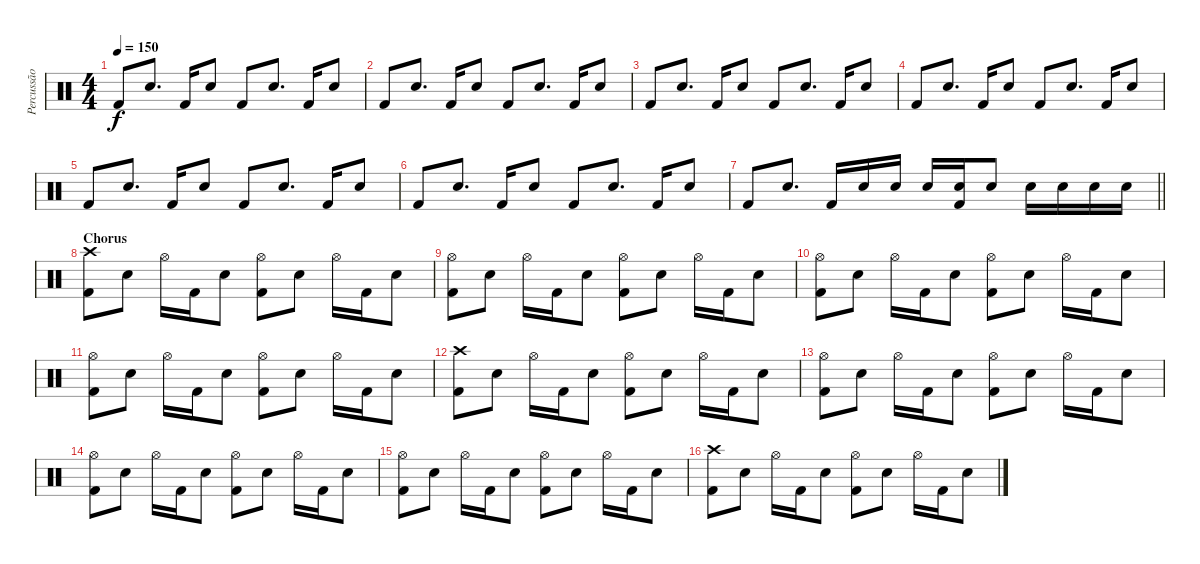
\track ("Percussão" "Percussão") {instrument percussion}
\staff {score}
\articulation defaults
\ts (4 4)
\tempo 150
\clef neutral
\ks c "Kick (hit) 2".8{dy f} "Snare (hit) 2".8{d} "Kick (hit) 2".16 "Snare (hit) 2".8 "Kick (hit) 2".8 "Snare (hit) 2".8{d} "Kick (hit) 2".16 "Snare (hit) 2".8
|
"Kick (hit) 2".8 "Snare (hit) 2".8{d} "Kick (hit) 2".16 "Snare (hit) 2".8 "Kick (hit) 2".8 "Snare (hit) 2".8{d} "Kick (hit) 2".16 "Snare (hit) 2".8 |
"Kick (hit) 2".8 "Snare (hit) 2".8{d} "Kick (hit) 2".16 "Snare (hit) 2".8 "Kick (hit) 2".8 "Snare (hit) 2".8{d} "Kick (hit) 2".16 "Snare (hit) 2".8 |
"Kick (hit) 2".8 "Snare (hit) 2".8{d} "Kick (hit) 2".16 "Snare (hit) 2".8 "Kick (hit) 2".8 "Snare (hit) 2".8{d} "Kick (hit) 2".16 "Snare (hit) 2".8 |
"Kick (hit) 2".8 "Snare (hit) 2".8{d} "Kick (hit) 2".16 "Snare (hit) 2".8 "Kick (hit) 2".8 "Snare (hit) 2".8{d} "Kick (hit) 2".16 "Snare (hit) 2".8 |
"Kick (hit) 2".8 "Snare (hit) 2".8{d} "Kick (hit) 2".16 "Snare (hit) 2".8 "Kick (hit) 2".8 "Snare (hit) 2".8{d} "Kick (hit) 2".16 "Snare (hit) 2".8 |
\barLineRight lightlight "Kick (hit) 2".8 "Snare (hit) 2".8{d} "Kick (hit) 2".16 "Snare (hit) 2".16 "Snare (hit) 2".16 "Snare (hit) 2".16
("Snare (hit) 2" "Kick (hit) 2").16 "Snare (hit) 2".8 "Snare (hit) 2".16 "Snare (hit) 2".16 "Snare (hit) 2".16 "Snare (hit) 2".16 |
\section ("" "Chorus")
("Crash high (hit)" "Kick (hit) 2").8 "Snare (hit) 2".8 "Hi-Hat (open)".16 "Kick (hit) 2".16 "Snare (hit) 2".8 ("Hi-Hat (open)" "Kick (hit) 2").8 "Snare (hit) 2".8 "Hi-Hat (open)".16 "Kick (hit) 2".16 "Snare (hit) 2".8 |
("Hi-Hat (open)" "Kick (hit) 2").8 "Snare (hit) 2".8 "Hi-Hat (open)".16 "Kick (hit) 2".16 "Snare (hit) 2".8 ("Hi-Hat (open)" "Kick (hit) 2").8 "Snare (hit) 2".8 "Hi-Hat (open)".16 "Kick (hit) 2".16 "Snare (hit) 2".8 |
("Hi-Hat (open)" "Kick (hit) 2").8 "Snare (hit) 2".8 "Hi-Hat (open)".16 "Kick (hit) 2".16 "Snare (hit) 2".8 ("Hi-Hat (open)" "Kick (hit) 2").8 "Snare (hit) 2".8 "Hi-Hat (open)".16 "Kick (hit) 2".16 "Snare (hit) 2".8 |
("Hi-Hat (open)" "Kick (hit) 2").8 "Snare (hit) 2".8 "Hi-Hat (open)".16 "Kick (hit) 2".16 "Snare (hit) 2".8 ("Hi-Hat (open)" "Kick (hit) 2").8 "Snare (hit) 2".8 "Hi-Hat (open)".16 "Kick (hit) 2".16 "Snare (hit) 2".8 |
("Crash high (hit)" "Kick (hit) 2").8 "Snare (hit) 2".8 "Hi-Hat (open)".16 "Kick (hit) 2".16 "Snare (hit) 2".8 ("Hi-Hat (open)" "Kick (hit) 2").8 "Snare (hit) 2".8 "Hi-Hat (open)".16 "Kick (hit) 2".16 "Snare (hit) 2".8 |
("Hi-Hat (open)" "Kick (hit) 2").8 "Snare (hit) 2".8 "Hi-Hat (open)".16 "Kick (hit) 2".16 "Snare (hit) 2".8 ("Hi-Hat (open)" "Kick (hit) 2").8 "Snare (hit) 2".8 "Hi-Hat (open)".16 "Kick (hit) 2".16 "Snare (hit) 2".8 |
("Hi-Hat (open)" "Kick (hit) 2").8 "Snare (hit) 2".8 "Hi-Hat (open)".16 "Kick (hit) 2".16 "Snare (hit) 2".8 ("Hi-Hat (open)" "Kick (hit) 2").8 "Snare (hit) 2".8 "Hi-Hat (open)".16 "Kick (hit) 2".16 "Snare (hit) 2".8 |
("Hi-Hat (open)" "Kick (hit) 2").8 "Snare (hit) 2".8 "Hi-Hat (open)".16 "Kick (hit) 2".16 "Snare (hit) 2".8 ("Hi-Hat (open)" "Kick (hit) 2").8 "Snare (hit) 2".8 "Hi-Hat (open)".16 "Kick (hit) 2".16 "Snare (hit) 2".8 |
("Crash high (hit)" "Kick (hit) 2").8 "Snare (hit) 2".8 "Hi-Hat (open)".16 "Kick (hit) 2".16 "Snare (hit) 2".8 ("Hi-Hat (open)" "Kick (hit) 2").8 "Snare (hit) 2".8 "Hi-Hat (open)".16 "Kick (hit) 2".16 "Snare (hit) 2".8
